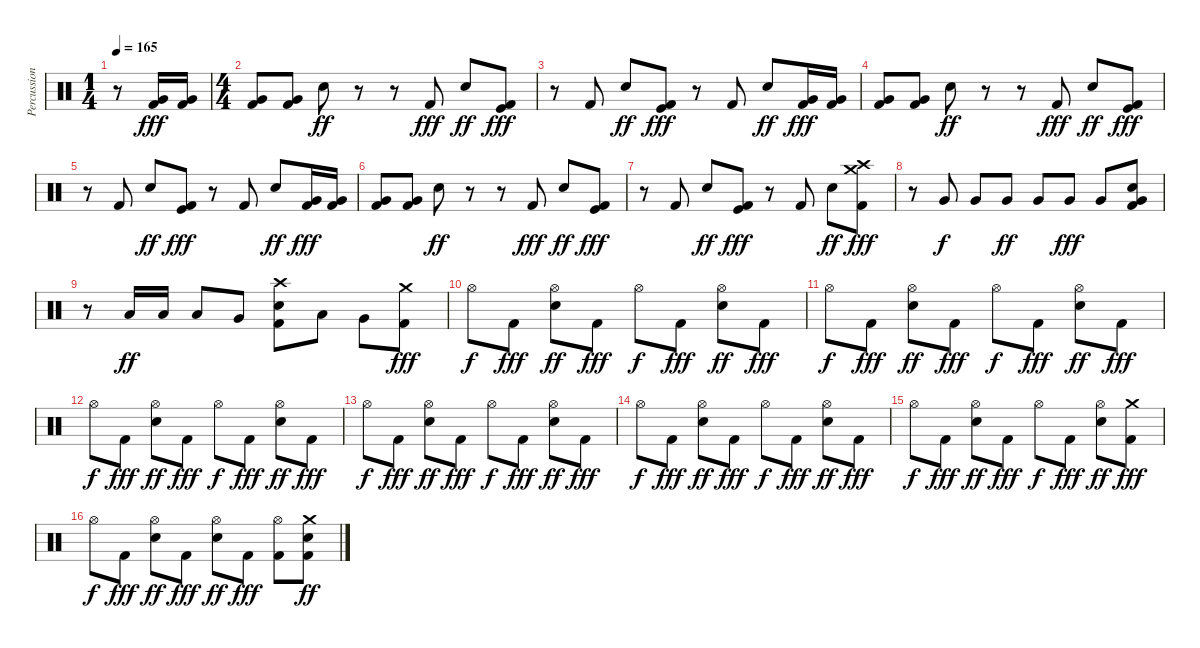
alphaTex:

\track ("Percussion" "Percussion") {instrument percussion}
\staff {score}
\articulation defaults
\ts (1 4)
\tempo 165
\clef neutral
\ks c
r.8{dy fff} ("Very Low Tom (hit)" "Kick (hit) 2").16 ("Very Low Tom (hit)" "Kick (hit) 2").16 |
\ts (4 4)
("Very Low Tom (hit)" "Kick (hit) 2").8 ("Very Low Tom (hit)" "Kick (hit) 2").8 "Electric Snare (hit)".8{dy ff} r.8 r.8 "Kick (hit) 2".8{dy fff} "Electric Snare (hit)".8{dy ff} ("Kick (hit)" "Kick (hit) 2").8{dy fff} |
r.8 "Kick (hit) 2".8 "Electric Snare (hit)".8{dy ff} ("Kick (hit)" "Kick (hit) 2").8{dy fff} r.8 "Kick (hit) 2".8 "Electric Snare (hit)".8{dy ff} ("Very Low Tom (hit)" "Kick (hit) 2").16{dy fff} ("Very Low Tom (hit)" "Kick (hit) 2").16 |
("Very Low Tom (hit)" "Kick (hit) 2").8 ("Very Low Tom (hit)" "Kick (hit) 2").8 "Electric Snare (hit)".8{dy ff} r.8 r.8 "Kick (hit) 2".8{dy fff} "Electric Snare (hit)".8{dy ff} ("Kick (hit)" "Kick (hit) 2").8{dy fff} |
r.8 "Kick (hit) 2".8 "Electric Snare (hit)".8{dy ff} ("Kick (hit)" "Kick (hit) 2").8{dy fff} r.8 "Kick (hit) 2".8 "Electric Snare (hit)".8{dy ff} ("Very Low Tom (hit)" "Kick (hit) 2").16{dy fff} ("Very Low Tom (hit)" "Kick (hit) 2").16 |
("Very Low Tom (hit)" "Kick (hit) 2").8 ("Very Low Tom (hit)" "Kick (hit) 2").8 "Electric Snare (hit)".8{dy ff} r.8 r.8 "Kick (hit) 2".8{dy fff} "Electric Snare (hit)".8{dy ff} ("Kick (hit)" "Kick (hit) 2").8{dy fff} |
r.8 "Kick (hit) 2".8 "Electric Snare (hit)".8{dy ff} ("Kick (hit)" "Kick (hit) 2").8{dy fff} r.8 "Kick (hit) 2".8 "Electric Snare (hit)".8{dy ff} ("Crash medium (hit)" "Crash high (hit)" "Kick (hit) 2").8{dy fff} |
r.8 "Very Low Tom (hit)".8{dy f} "Very Low Tom (hit)".8 "Very Low Tom (hit)".8{dy ff} "Very Low Tom (hit)".8 "Very Low Tom (hit)".8{dy fff} "Very Low Tom (hit)".8 ("Electric Snare (hit)" "Kick (hit) 2" "Very Low Tom (hit)").8 |
r.8 "Low Tom (hit)".16{dy ff} "Low Tom (hit)".16 "Low Tom (hit)".8 "Very Low Tom (hit)".8 ("Crash high (hit)" "Electric Snare (hit)" "Kick (hit) 2").8 "Low Tom (hit)".8 "Very Low Tom (hit)".8 ("Crash medium (hit)" "Kick (hit) 2").8{dy fff} |
"Hi-Hat (open)".8{dy f} "Kick (hit) 2".8{dy fff} ("Hi-Hat (open)" "Electric Snare (hit)").8{dy ff} "Kick (hit) 2".8{dy fff} "Hi-Hat (open)".8{dy f} "Kick (hit) 2".8{dy fff} ("Hi-Hat (open)" "Electric Snare (hit)").8{dy ff} "Kick (hit) 2".8{dy fff} |
"Hi-Hat (open)".8{dy f} "Kick (hit) 2".8{dy fff} ("Hi-Hat (open)" "Electric Snare (hit)").8{dy ff} "Kick (hit) 2".8{dy fff} "Hi-Hat (open)".8{dy f} "Kick (hit) 2".8{dy fff} ("Hi-Hat (open)" "Electric Snare (hit)").8{dy ff} "Kick (hit) 2".8{dy fff} |
"Hi-Hat (open)".8{dy f} "Kick (hit) 2".8{dy fff} ("Hi-Hat (open)" "Electric Snare (hit)").8{dy ff} "Kick (hit) 2".8{dy fff} "Hi-Hat (open)".8{dy f} "Kick (hit) 2".8{dy fff} ("Hi-Hat (open)" "Electric Snare (hit)").8{dy ff} "Kick (hit) 2".8{dy fff} |
"Hi-Hat (open)".8{dy f} "Kick (hit) 2".8{dy fff} ("Hi-Hat (open)" "Electric Snare (hit)").8{dy ff} "Kick (hit) 2".8{dy fff} "Hi-Hat (open)".8{dy f} "Kick (hit) 2".8{dy fff} ("Hi-Hat (open)" "Electric Snare (hit)").8{dy ff} "Kick (hit) 2".8{dy fff} |
"Hi-Hat (open)".8{dy f} "Kick (hit) 2".8{dy fff} ("Hi-Hat (open)" "Electric Snare (hit)").8{dy ff} "Kick (hit) 2".8{dy fff} "Hi-Hat (open)".8{dy f} "Kick (hit) 2".8{dy fff} ("Hi-Hat (open)" "Electric Snare (hit)").8{dy ff} "Kick (hit) 2".8{dy fff} |
"Hi-Hat (open)".8{dy f} "Kick (hit) 2".8{dy fff} ("Hi-Hat (open)" "Electric Snare (hit)").8{dy ff} "Kick (hit) 2".8{dy fff} "Hi-Hat (open)".8{dy f} "Kick (hit) 2".8{dy fff} ("Hi-Hat (open)" "Electric Snare (hit)").8{dy ff} ("Crash medium (hit)" "Kick (hit) 2").8{dy fff} |
"Hi-Hat (open)".8{dy f} "Kick (hit) 2".8{dy fff} ("Hi-Hat (open)" "Electric Snare (hit)").8{dy ff} "Kick (hit) 2".8{dy fff} ("Hi-Hat (open)" "Electric Snare (hit)").8{dy ff} "Kick (hit) 2".8{dy fff} ("Hi-Hat (open)" "Kick (hit) 2").8 ("Crash medium (hit)" "Electric Snare (hit)" "Kick (hit) 2").8{dy ff}
